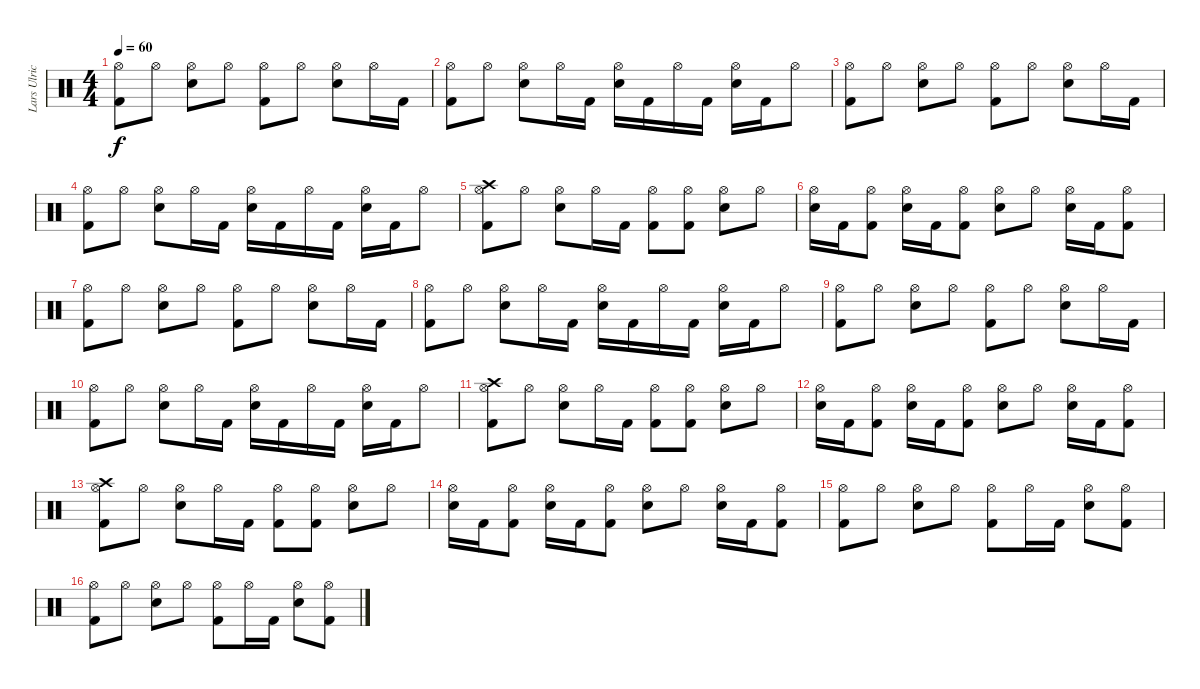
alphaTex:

\track ("Lars Ulrich" "Lars Ulric") {instrument percussion}
\staff {score}
\articulation defaults
\ts (4 4)
\tempo 60
\clef neutral
\ks c
("Kick (hit) 2" "Hi-Hat (open)").8{dy f} "Hi-Hat (open)".8 ("Snare (hit) 2" "Hi-Hat (open)").8 "Hi-Hat (open)".8 ("Kick (hit) 2" "Hi-Hat (open)").8 "Hi-Hat (open)".8 ("Snare (hit) 2" "Hi-Hat (open)").8 "Hi-Hat (open)".16 "Kick (hit) 2".16 |
("Kick (hit) 2" "Hi-Hat (open)").8 "Hi-Hat (open)".8 ("Snare (hit) 2" "Hi-Hat (open)").8 "Hi-Hat (open)".16 "Kick (hit) 2".16 ("Snare (hit) 2" "Hi-Hat (open)").16 "Kick (hit) 2".16 "Hi-Hat (open)".16 "Kick (hit) 2".16 ("Snare (hit) 2" "Hi-Hat (open)").16 "Kick (hit) 2".16 "Hi-Hat (open)".8 |
("Kick (hit) 2" "Hi-Hat (open)").8 "Hi-Hat (open)".8 ("Snare (hit) 2" "Hi-Hat (open)").8 "Hi-Hat (open)".8 ("Kick (hit) 2" "Hi-Hat (open)").8 "Hi-Hat (open)".8 ("Snare (hit) 2" "Hi-Hat (open)").8 "Hi-Hat (open)".16 "Kick (hit) 2".16 |
("Kick (hit) 2" "Hi-Hat (open)").8 "Hi-Hat (open)".8 ("Snare (hit) 2" "Hi-Hat (open)").8 "Hi-Hat (open)".16 "Kick (hit) 2".16 ("Snare (hit) 2" "Hi-Hat (open)").16 "Kick (hit) 2".16 "Hi-Hat (open)".16 "Kick (hit) 2".16 ("Snare (hit) 2" "Hi-Hat (open)").16 "Kick (hit) 2".16 "Hi-Hat (open)".8 |
("Kick (hit) 2" "Hi-Hat (open)" "Crash high (hit)").8 "Hi-Hat (open)".8 ("Snare (hit) 2" "Hi-Hat (open)").8 "Hi-Hat (open)".16 "Kick (hit) 2".16 ("Kick (hit) 2" "Hi-Hat (open)").8 ("Kick (hit) 2" "Hi-Hat (open)").8 ("Snare (hit) 2" "Hi-Hat (open)").8 "Hi-Hat (open)".8 |
("Snare (hit) 2" "Hi-Hat (open)").16 "Kick (hit) 2".16 ("Kick (hit) 2" "Hi-Hat (open)").8 ("Snare (hit) 2" "Hi-Hat (open)").16 "Kick (hit) 2".16 ("Kick (hit) 2" "Hi-Hat (open)").8 ("Snare (hit) 2" "Hi-Hat (open)").8 "Hi-Hat (open)".8 ("Snare (hit) 2" "Hi-Hat (open)").16 "Kick (hit) 2".16 ("Kick (hit) 2" "Hi-Hat (open)").8 |
("Kick (hit) 2" "Hi-Hat (open)").8 "Hi-Hat (open)".8 ("Snare (hit) 2" "Hi-Hat (open)").8 "Hi-Hat (open)".8 ("Kick (hit) 2" "Hi-Hat (open)").8 "Hi-Hat (open)".8 ("Snare (hit) 2" "Hi-Hat (open)").8 "Hi-Hat (open)".16 "Kick (hit) 2".16 |
("Kick (hit) 2" "Hi-Hat (open)").8 "Hi-Hat (open)".8 ("Snare (hit) 2" "Hi-Hat (open)").8 "Hi-Hat (open)".16 "Kick (hit) 2".16 ("Snare (hit) 2" "Hi-Hat (open)").16 "Kick (hit) 2".16 "Hi-Hat (open)".16 "Kick (hit) 2".16 ("Snare (hit) 2" "Hi-Hat (open)").16 "Kick (hit) 2".16 "Hi-Hat (open)".8 |
("Kick (hit) 2" "Hi-Hat (open)").8 "Hi-Hat (open)".8 ("Snare (hit) 2" "Hi-Hat (open)").8 "Hi-Hat (open)".8 ("Kick (hit) 2" "Hi-Hat (open)").8 "Hi-Hat (open)".8 ("Snare (hit) 2" "Hi-Hat (open)").8 "Hi-Hat (open)".16 "Kick (hit) 2".16 |
("Kick (hit) 2" "Hi-Hat (open)").8 "Hi-Hat (open)".8 ("Snare (hit) 2" "Hi-Hat (open)").8 "Hi-Hat (open)".16 "Kick (hit) 2".16 ("Snare (hit) 2" "Hi-Hat (open)").16 "Kick (hit) 2".16 "Hi-Hat (open)".16 "Kick (hit) 2".16 ("Snare (hit) 2" "Hi-Hat (open)").16 "Kick (hit) 2".16 "Hi-Hat (open)".8 |
("Kick (hit) 2" "Hi-Hat (open)" "Crash high (hit)").8 "Hi-Hat (open)".8 ("Snare (hit) 2" "Hi-Hat (open)").8 "Hi-Hat (open)".16 "Kick (hit) 2".16 ("Kick (hit) 2" "Hi-Hat (open)").8 ("Kick (hit) 2" "Hi-Hat (open)").8 ("Snare (hit) 2" "Hi-Hat (open)").8 "Hi-Hat (open)".8 |
("Snare (hit) 2" "Hi-Hat (open)").16 "Kick (hit) 2".16 ("Kick (hit) 2" "Hi-Hat (open)").8 ("Snare (hit) 2" "Hi-Hat (open)").16 "Kick (hit) 2".16 ("Kick (hit) 2" "Hi-Hat (open)").8 ("Snare (hit) 2" "Hi-Hat (open)").8 "Hi-Hat (open)".8 ("Snare (hit) 2" "Hi-Hat (open)").16 "Kick (hit) 2".16 ("Kick (hit) 2" "Hi-Hat (open)").8 |
("Kick (hit) 2" "Hi-Hat (open)" "Crash high (hit)").8 "Hi-Hat (open)".8 ("Snare (hit) 2" "Hi-Hat (open)").8 "Hi-Hat (open)".16 "Kick (hit) 2".16 ("Kick (hit) 2" "Hi-Hat (open)").8 ("Kick (hit) 2" "Hi-Hat (open)").8 ("Snare (hit) 2" "Hi-Hat (open)").8 "Hi-Hat (open)".8 |
("Snare (hit) 2" "Hi-Hat (open)").16 "Kick (hit) 2".16 ("Kick (hit) 2" "Hi-Hat (open)").8 ("Snare (hit) 2" "Hi-Hat (open)").16 "Kick (hit) 2".16 ("Kick (hit) 2" "Hi-Hat (open)").8 ("Snare (hit) 2" "Hi-Hat (open)").8 "Hi-Hat (open)".8 ("Snare (hit) 2" "Hi-Hat (open)").16 "Kick (hit) 2".16 ("Kick (hit) 2" "Hi-Hat (open)").8 |
("Kick (hit) 2" "Hi-Hat (open)").8 "Hi-Hat (open)".8 ("Snare (hit) 2" "Hi-Hat (open)").8 "Hi-Hat (open)".8 ("Kick (hit) 2" "Hi-Hat (open)").8 "Hi-Hat (open)".16 "Kick (hit) 2".16 ("Snare (hit) 2" "Hi-Hat (open)").8 ("Kick (hit) 2" "Hi-Hat (open)").8 |
("Kick (hit) 2" "Hi-Hat (open)").8 "Hi-Hat (open)".8 ("Snare (hit) 2" "Hi-Hat (open)").8 "Hi-Hat (open)".8 ("Kick (hit) 2" "Hi-Hat (open)").8 "Hi-Hat (open)".16 "Kick (hit) 2".16 ("Snare (hit) 2" "Hi-Hat (open)").8 ("Kick (hit) 2" "Hi-Hat (open)").8
